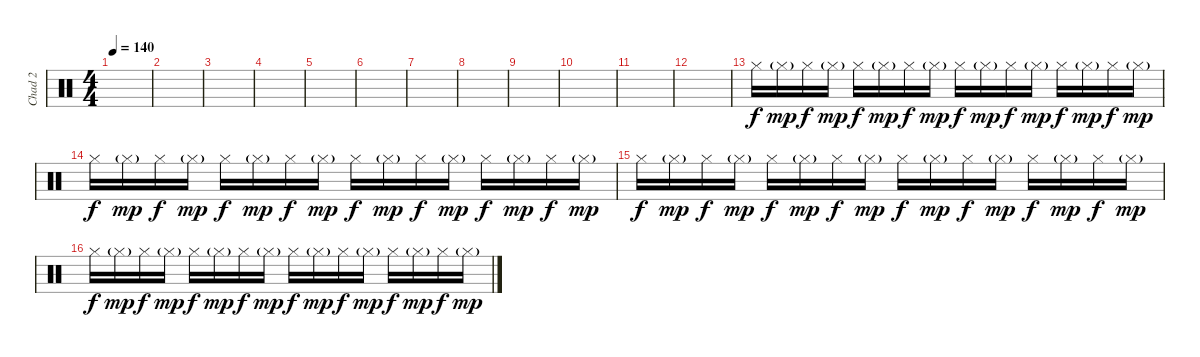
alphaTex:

\track ("Chad 2" "Chad 2") {instrument percussion}
\staff {score}
\articulation defaults
\ts (4 4)
\tempo 140
\clef neutral
\ks c
|
|
|
|
|
|
|
|
|
|
|
|
"Hi-Hat (closed)".16 "Hi-Hat (closed)"{g}.16{dy mp} "Hi-Hat (closed)".16{dy f} "Hi-Hat (closed)"{g}.16{dy mp} "Hi-Hat (closed)".16{dy f} "Hi-Hat (closed)"{g}.16{dy mp} "Hi-Hat (closed)".16{dy f} "Hi-Hat (closed)"{g}.16{dy mp} "Hi-Hat (closed)".16{dy f} "Hi-Hat (closed)"{g}.16{dy mp} "Hi-Hat (closed)".16{dy f} "Hi-Hat (closed)"{g}.16{dy mp} "Hi-Hat (closed)".16{dy f} "Hi-Hat (closed)"{g}.16{dy mp} "Hi-Hat (closed)".16{dy f} "Hi-Hat (closed)"{g}.16{dy mp} |
"Hi-Hat (closed)".16{dy f} "Hi-Hat (closed)"{g}.16{dy mp} "Hi-Hat (closed)".16{dy f} "Hi-Hat (closed)"{g}.16{dy mp} "Hi-Hat (closed)".16{dy f} "Hi-Hat (closed)"{g}.16{dy mp} "Hi-Hat (closed)".16{dy f} "Hi-Hat (closed)"{g}.16{dy mp} "Hi-Hat (closed)".16{dy f} "Hi-Hat (closed)"{g}.16{dy mp} "Hi-Hat (closed)".16{dy f} "Hi-Hat (closed)"{g}.16{dy mp} "Hi-Hat (closed)".16{dy f} "Hi-Hat (closed)"{g}.16{dy mp} "Hi-Hat (closed)".16{dy f} "Hi-Hat (closed)"{g}.16{dy mp} |
"Hi-Hat (closed)".16{dy f} "Hi-Hat (closed)"{g}.16{dy mp} "Hi-Hat (closed)".16{dy f} "Hi-Hat (closed)"{g}.16{dy mp} "Hi-Hat (closed)".16{dy f} "Hi-Hat (closed)"{g}.16{dy mp} "Hi-Hat (closed)".16{dy f} "Hi-Hat (closed)"{g}.16{dy mp} "Hi-Hat (closed)".16{dy f} "Hi-Hat (closed)"{g}.16{dy mp} "Hi-Hat (closed)".16{dy f} "Hi-Hat (closed)"{g}.16{dy mp} "Hi-Hat (closed)".16{dy f} "Hi-Hat (closed)"{g}.16{dy mp} "Hi-Hat (closed)".16{dy f} "Hi-Hat (closed)"{g}.16{dy mp} |
"Hi-Hat (closed)".16{dy f} "Hi-Hat (closed)"{g}.16{dy mp} "Hi-Hat (closed)".16{dy f} "Hi-Hat (closed)"{g}.16{dy mp} "Hi-Hat (closed)".16{dy f} "Hi-Hat (closed)"{g}.16{dy mp} "Hi-Hat (closed)".16{dy f} "Hi-Hat (closed)"{g}.16{dy mp} "Hi-Hat (closed)".16{dy f} "Hi-Hat (closed)"{g}.16{dy mp} "Hi-Hat (closed)".16{dy f} "Hi-Hat (closed)"{g}.16{dy mp} "Hi-Hat (closed)".16{dy f} "Hi-Hat (closed)"{g}.16{dy mp} "Hi-Hat (closed)".16{dy f} "Hi-Hat (closed)"{g}.16{dy mp}
